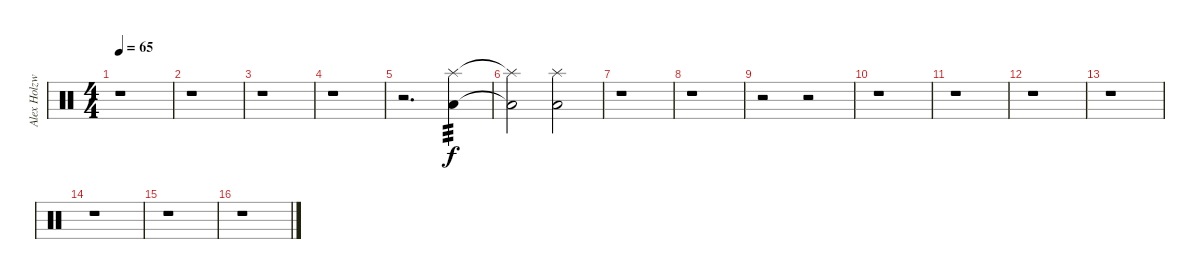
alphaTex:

\track ("Alex Holzwarth (Drums)" "Alex Holzw") {instrument percussion}
\staff {score}
\articulation defaults
\ts (4 4)
\tempo 65
\clef neutral
\ks c
r.1{dy f} |
r.1 |
r.1 |
r.1 |
r.2{d} ("Splash (hit)" "Low Floor Tom (hit)").4{tp 3 volume 10} |
("Splash (hit)"{t} "Low Floor Tom (hit)"{t}).2 ("Splash (hit)" "Low Floor Tom (hit)").2 |
r.1 |
r.1 |
r.2 r.2 |
r.1 |
r.1 |
r.1 |
r.1 |
r.1 |
r.1 |
r.1
